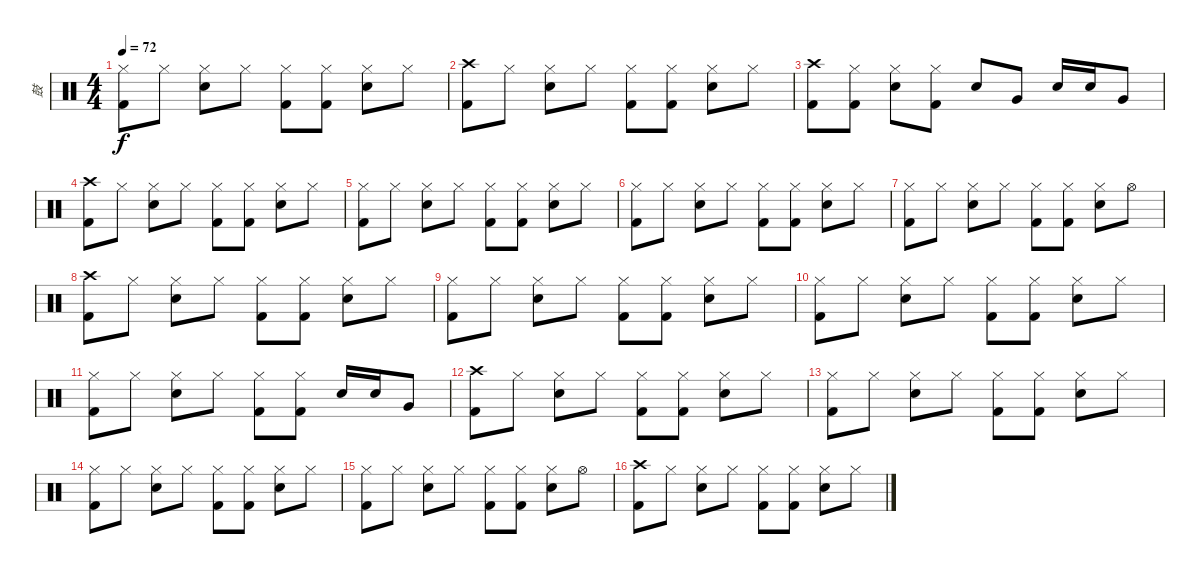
\track ("鼓" "鼓") {instrument percussion}
\staff {score}
\articulation defaults
\ts (4 4)
\tempo 72
\clef neutral
\ks c
("Hi-Hat (closed)" "Kick (hit) 2").8{dy f} "Hi-Hat (closed)".8 ("Hi-Hat (closed)" "Electric Snare (hit)").8 "Hi-Hat (closed)".8 ("Hi-Hat (closed)" "Kick (hit) 2").8 ("Hi-Hat (closed)" "Kick (hit) 2").8 ("Hi-Hat (closed)" "Electric Snare (hit)").8 "Hi-Hat (closed)".8 |
("Crash high (hit)" "Kick (hit) 2").8 "Hi-Hat (closed)".8 ("Hi-Hat (closed)" "Electric Snare (hit)").8 "Hi-Hat (closed)".8 ("Hi-Hat (closed)" "Kick (hit) 2").8 ("Hi-Hat (closed)" "Kick (hit) 2").8 ("Hi-Hat (closed)" "Electric Snare (hit)").8 "Hi-Hat (closed)".8 |
("Crash high (hit)" "Kick (hit) 2").8 ("Hi-Hat (closed)" "Kick (hit) 2").8 ("Hi-Hat (closed)" "Electric Snare (hit)").8 ("Hi-Hat (closed)" "Kick (hit) 2").8 "Electric Snare (hit)".8 "Very Low Tom (hit)".8 "Electric Snare (hit)".16 "Electric Snare (hit)".16 "Very Low Tom (hit)".8 |
("Crash high (hit)" "Kick (hit) 2").8 "Hi-Hat (closed)".8 ("Hi-Hat (closed)" "Electric Snare (hit)").8 "Hi-Hat (closed)".8 ("Hi-Hat (closed)" "Kick (hit) 2").8 ("Hi-Hat (closed)" "Kick (hit) 2").8 ("Hi-Hat (closed)" "Electric Snare (hit)").8 "Hi-Hat (closed)".8 |
("Hi-Hat (closed)" "Kick (hit) 2").8 "Hi-Hat (closed)".8 ("Hi-Hat (closed)" "Electric Snare (hit)").8 "Hi-Hat (closed)".8 ("Hi-Hat (closed)" "Kick (hit) 2").8 ("Hi-Hat (closed)" "Kick (hit) 2").8 ("Hi-Hat (closed)" "Electric Snare (hit)").8 "Hi-Hat (closed)".8 |
("Hi-Hat (closed)" "Kick (hit) 2").8 "Hi-Hat (closed)".8 ("Hi-Hat (closed)" "Electric Snare (hit)").8 "Hi-Hat (closed)".8 ("Hi-Hat (closed)" "Kick (hit) 2").8 ("Hi-Hat (closed)" "Kick (hit) 2").8 ("Hi-Hat (closed)" "Electric Snare (hit)").8 "Hi-Hat (closed)".8 |
("Hi-Hat (closed)" "Kick (hit) 2").8 "Hi-Hat (closed)".8 ("Hi-Hat (closed)" "Electric Snare (hit)").8 "Hi-Hat (closed)".8 ("Hi-Hat (closed)" "Kick (hit) 2").8 ("Hi-Hat (closed)" "Kick (hit) 2").8 ("Hi-Hat (closed)" "Electric Snare (hit)").8 "Hi-Hat (open)".8 |
("Crash high (hit)" "Kick (hit) 2").8 "Hi-Hat (closed)".8 ("Hi-Hat (closed)" "Electric Snare (hit)").8 "Hi-Hat (closed)".8 ("Hi-Hat (closed)" "Kick (hit) 2").8 ("Hi-Hat (closed)" "Kick (hit) 2").8 ("Hi-Hat (closed)" "Electric Snare (hit)").8 "Hi-Hat (closed)".8 |
("Hi-Hat (closed)" "Kick (hit) 2").8 "Hi-Hat (closed)".8 ("Hi-Hat (closed)" "Electric Snare (hit)").8 "Hi-Hat (closed)".8 ("Hi-Hat (closed)" "Kick (hit) 2").8 ("Hi-Hat (closed)" "Kick (hit) 2").8 ("Hi-Hat (closed)" "Electric Snare (hit)").8 "Hi-Hat (closed)".8 |
("Hi-Hat (closed)" "Kick (hit) 2").8 "Hi-Hat (closed)".8 ("Hi-Hat (closed)" "Electric Snare (hit)").8 "Hi-Hat (closed)".8 ("Hi-Hat (closed)" "Kick (hit) 2").8 ("Hi-Hat (closed)" "Kick (hit) 2").8 ("Hi-Hat (closed)" "Electric Snare (hit)").8 "Hi-Hat (closed)".8 |
("Hi-Hat (closed)" "Kick (hit) 2").8 "Hi-Hat (closed)".8 ("Hi-Hat (closed)" "Electric Snare (hit)").8 "Hi-Hat (closed)".8 ("Hi-Hat (closed)" "Kick (hit) 2").8 ("Hi-Hat (closed)" "Kick (hit) 2").8 "Electric Snare (hit)".16 "Electric Snare (hit)".16 "Very Low Tom (hit)".8 |
("Crash high (hit)" "Kick (hit) 2").8 "Hi-Hat (closed)".8 ("Hi-Hat (closed)" "Electric Snare (hit)").8 "Hi-Hat (closed)".8 ("Hi-Hat (closed)" "Kick (hit) 2").8 ("Hi-Hat (closed)" "Kick (hit) 2").8 ("Hi-Hat (closed)" "Electric Snare (hit)").8 "Hi-Hat (closed)".8 |
("Hi-Hat (closed)" "Kick (hit) 2").8 "Hi-Hat (closed)".8 ("Hi-Hat (closed)" "Electric Snare (hit)").8 "Hi-Hat (closed)".8 ("Hi-Hat (closed)" "Kick (hit) 2").8 ("Hi-Hat (closed)" "Kick (hit) 2").8 ("Hi-Hat (closed)" "Electric Snare (hit)").8 "Hi-Hat (closed)".8 |
("Hi-Hat (closed)" "Kick (hit) 2").8 "Hi-Hat (closed)".8 ("Hi-Hat (closed)" "Electric Snare (hit)").8 "Hi-Hat (closed)".8 ("Hi-Hat (closed)" "Kick (hit) 2").8 ("Hi-Hat (closed)" "Kick (hit) 2").8 ("Hi-Hat (closed)" "Electric Snare (hit)").8 "Hi-Hat (closed)".8 |
("Hi-Hat (closed)" "Kick (hit) 2").8 "Hi-Hat (closed)".8 ("Hi-Hat (closed)" "Electric Snare (hit)").8 "Hi-Hat (closed)".8 ("Hi-Hat (closed)" "Kick (hit) 2").8 ("Hi-Hat (closed)" "Kick (hit) 2").8 ("Hi-Hat (closed)" "Electric Snare (hit)").8 "Hi-Hat (open)".8 |
("Crash high (hit)" "Kick (hit) 2").8 "Hi-Hat (closed)".8 ("Hi-Hat (closed)" "Electric Snare (hit)").8 "Hi-Hat (closed)".8 ("Hi-Hat (closed)" "Kick (hit) 2").8 ("Hi-Hat (closed)" "Kick (hit) 2").8 ("Hi-Hat (closed)" "Electric Snare (hit)").8 "Hi-Hat (closed)".8
